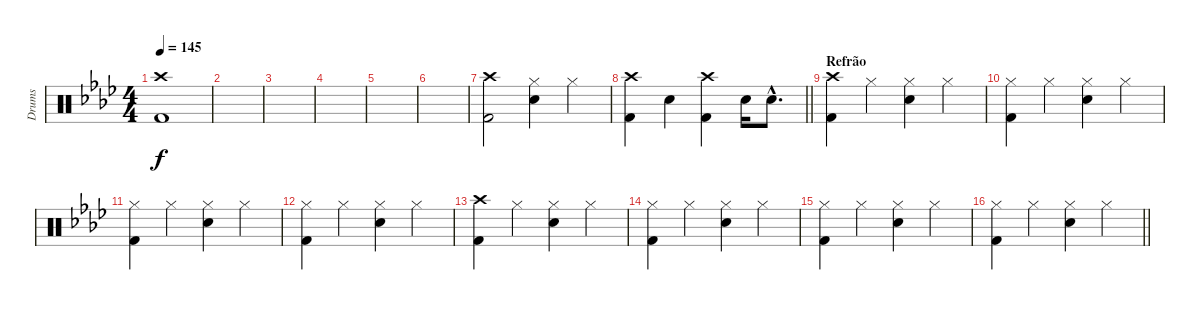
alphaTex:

\track ("Drums" "Drums") {instrument percussion}
\staff {score}
\articulation defaults
\ts (4 4)
\tempo 145
\clef neutral
\ks ab
("Crash high (hit)" "Kick (hit) 2").1{dy f} |
|
|
|
|
|
("Crash high (hit)" "Kick (hit) 2").2 ("Hi-Hat (closed)" "Electric Snare (hit)").4 "Hi-Hat (closed)".4 |
\barLineRight lightlight
("Crash high (hit)" "Kick (hit) 2").4 "Electric Snare (hit)".4 ("Crash high (hit)" "Kick (hit) 2").4 "Electric Snare (hit)".16 "Electric Snare (hit)"{hac}.8{d} |
\section ("" "Refrão")
("Crash high (hit)" "Kick (hit) 2").4 "Hi-Hat (closed)".4 ("Hi-Hat (closed)" "Electric Snare (hit)").4 "Hi-Hat (closed)".4 |
("Hi-Hat (closed)" "Kick (hit) 2").4 "Hi-Hat (closed)".4 ("Hi-Hat (closed)" "Electric Snare (hit)").4 "Hi-Hat (closed)".4 |
("Hi-Hat (closed)" "Kick (hit) 2").4 "Hi-Hat (closed)".4 ("Hi-Hat (closed)" "Electric Snare (hit)").4 "Hi-Hat (closed)".4 |
("Hi-Hat (closed)" "Kick (hit) 2").4 "Hi-Hat (closed)".4 ("Hi-Hat (closed)" "Electric Snare (hit)").4 "Hi-Hat (closed)".4 |
("Crash high (hit)" "Kick (hit) 2").4 "Hi-Hat (closed)".4 ("Hi-Hat (closed)" "Electric Snare (hit)").4 "Hi-Hat (closed)".4 |
("Hi-Hat (closed)" "Kick (hit) 2").4 "Hi-Hat (closed)".4 ("Hi-Hat (closed)" "Electric Snare (hit)").4 "Hi-Hat (closed)".4 |
("Hi-Hat (closed)" "Kick (hit) 2").4 "Hi-Hat (closed)".4 ("Hi-Hat (closed)" "Electric Snare (hit)").4 "Hi-Hat (closed)".4 |
\barLineRight lightlight
("Hi-Hat (closed)" "Kick (hit) 2").4 "Hi-Hat (closed)".4 ("Hi-Hat (closed)" "Electric Snare (hit)").4 "Hi-Hat (closed)".4
